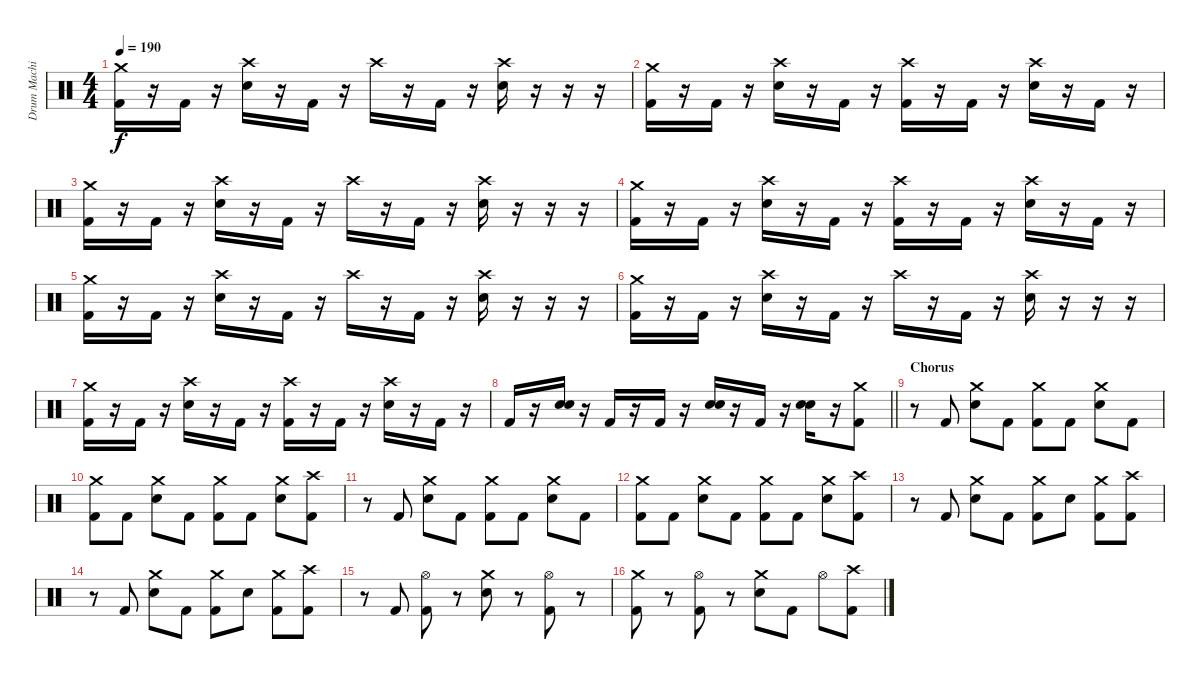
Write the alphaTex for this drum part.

\track ("Drum Machine Man" "Drum Machi") {instrument percussion}
\staff {score}
\articulation defaults
\ts (4 4)
\tempo 190
\clef neutral
\ks c
("Crash medium (hit)" "Kick (hit) 2").16{dy f} r.16 "Kick (hit) 2".16 r.16 ("Crash high (hit)" "Electric Snare (hit)").16 r.16 "Kick (hit) 2".16 r.16 "Crash high (hit)".16 r.16 "Kick (hit) 2".16 r.16 ("Crash high (hit)" "Electric Snare (hit)").16 r.16 r.16 r.16 |
("Crash medium (hit)" "Kick (hit) 2").16 r.16 "Kick (hit) 2".16 r.16 ("Crash high (hit)" "Electric Snare (hit)").16 r.16 "Kick (hit) 2".16 r.16 ("Crash high (hit)" "Kick (hit) 2").16 r.16 "Kick (hit) 2".16 r.16 ("Crash high (hit)" "Electric Snare (hit)").16 r.16 "Kick (hit) 2".16 r.16 |
("Crash medium (hit)" "Kick (hit) 2").16 r.16 "Kick (hit) 2".16 r.16 ("Crash high (hit)" "Electric Snare (hit)").16 r.16 "Kick (hit) 2".16 r.16 "Crash high (hit)".16 r.16 "Kick (hit) 2".16 r.16 ("Crash high (hit)" "Electric Snare (hit)").16 r.16 r.16 r.16 |
("Crash medium (hit)" "Kick (hit) 2").16 r.16 "Kick (hit) 2".16 r.16 ("Crash high (hit)" "Electric Snare (hit)").16 r.16 "Kick (hit) 2".16 r.16 ("Crash high (hit)" "Kick (hit) 2").16 r.16 "Kick (hit) 2".16 r.16 ("Crash high (hit)" "Electric Snare (hit)").16 r.16 "Kick (hit) 2".16 r.16 |
("Crash medium (hit)" "Kick (hit) 2").16 r.16 "Kick (hit) 2".16 r.16 ("Crash high (hit)" "Electric Snare (hit)").16 r.16 "Kick (hit) 2".16 r.16 "Crash high (hit)".16 r.16 "Kick (hit) 2".16 r.16 ("Crash high (hit)" "Electric Snare (hit)").16 r.16 r.16 r.16 |
("Crash medium (hit)" "Kick (hit) 2").16 r.16 "Kick (hit) 2".16 r.16 ("Crash high (hit)" "Electric Snare (hit)").16 r.16 "Kick (hit) 2".16 r.16 "Crash high (hit)".16 r.16 "Kick (hit) 2".16 r.16 ("Crash high (hit)" "Electric Snare (hit)").16 r.16 r.16 r.16 |
("Crash medium (hit)" "Kick (hit) 2").16 r.16 "Kick (hit) 2".16 r.16 ("Crash high (hit)" "Electric Snare (hit)").16 r.16 "Kick (hit) 2".16 r.16 ("Crash high (hit)" "Kick (hit) 2").16 r.16 "Kick (hit) 2".16 r.16 ("Crash high (hit)" "Electric Snare (hit)").16 r.16 "Kick (hit) 2".16 r.16 |
\barLineRight lightlight "Kick (hit) 2".16
r.16 ("Electric Snare (hit)" "Electric Snare (hit)").16{bd 60} r.16 "Kick (hit) 2".16 r.16 "Kick (hit) 2".16 r.16 ("Electric Snare (hit)" "Electric Snare (hit)").16{bd 60} r.16 "Kick (hit) 2".16 r.16 ("Electric Snare (hit)" "Electric Snare (hit)").16{bd 60} r.16 ("Crash medium (hit)" "Kick (hit) 2").8 |
\section ("" "Chorus")
r.8 "Kick (hit) 2".8 ("Crash medium (hit)" "Electric Snare (hit)").8 "Kick (hit) 2".8 ("Crash medium (hit)" "Kick (hit) 2").8 "Kick (hit) 2".8 ("Crash medium (hit)" "Electric Snare (hit)").8 "Kick (hit) 2".8 |
("Crash medium (hit)" "Kick (hit) 2").8 "Kick (hit) 2".8 ("Crash medium (hit)" "Electric Snare (hit)").8 "Kick (hit) 2".8 ("Crash medium (hit)" "Kick (hit) 2").8 "Kick (hit) 2".8 ("Crash medium (hit)" "Electric Snare (hit)").8 ("Crash high (hit)" "Kick (hit) 2").8 |
r.8 "Kick (hit) 2".8 ("Crash medium (hit)" "Electric Snare (hit)").8 "Kick (hit) 2".8 ("Crash medium (hit)" "Kick (hit) 2").8 "Kick (hit) 2".8 ("Crash medium (hit)" "Electric Snare (hit)").8 "Kick (hit) 2".8 |
("Crash medium (hit)" "Kick (hit) 2").8 "Kick (hit) 2".8 ("Crash medium (hit)" "Electric Snare (hit)").8 "Kick (hit) 2".8 ("Crash medium (hit)" "Kick (hit) 2").8 "Kick (hit) 2".8 ("Crash medium (hit)" "Electric Snare (hit)").8 ("Crash high (hit)" "Kick (hit) 2").8 |
r.8 "Kick (hit) 2".8 ("Crash medium (hit)" "Electric Snare (hit)").8 "Kick (hit) 2".8 ("Crash medium (hit)" "Kick (hit) 2").8 "Electric Snare (hit)".8 ("Crash medium (hit)" "Kick (hit) 2").8 ("Crash high (hit)" "Kick (hit) 2").8 |
r.8 "Kick (hit) 2".8 ("Crash medium (hit)" "Electric Snare (hit)").8 "Kick (hit) 2".8 ("Crash medium (hit)" "Kick (hit) 2").8 "Electric Snare (hit)".8 ("Crash medium (hit)" "Kick (hit) 2").8 ("Crash high (hit)" "Kick (hit) 2").8 |
r.8 "Kick (hit) 2".8 ("Hi-Hat (open)" "Kick (hit) 2").8 r.8 ("Crash medium (hit)" "Electric Snare (hit)").8 r.8 ("Hi-Hat (open)" "Kick (hit) 2").8 r.8 |
("Crash medium (hit)" "Kick (hit) 2").8 r.8 ("Hi-Hat (open)" "Kick (hit) 2").8 r.8 ("Crash medium (hit)" "Electric Snare (hit)").8 "Kick (hit) 2".8 "Hi-Hat (open)".8 ("Crash high (hit)" "Kick (hit) 2").8
